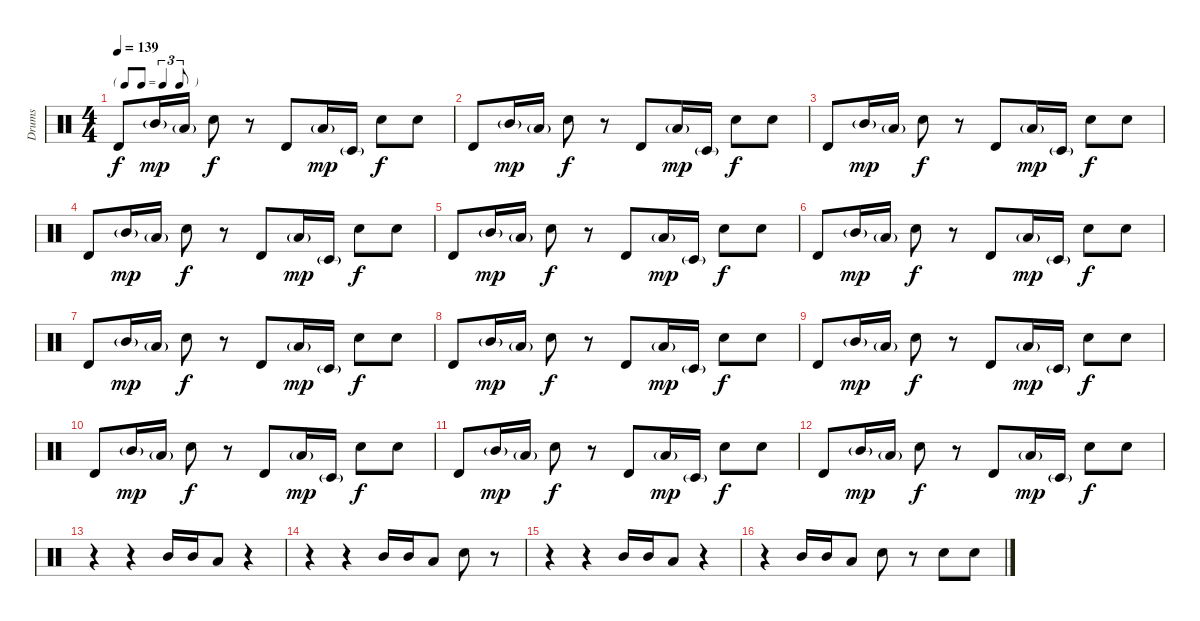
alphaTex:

\track ("Drums" "Drums") {instrument percussion}
\staff {score}
\articulation defaults
\ts (4 4)
\tf triplet8th
\tempo 139
\clef neutral
\ks c "Timbale high (hit)".8{dy f} "Mid Tom (hit)"{g}.16{dy mp} "Low Tom (hit)"{g}.16 "Electric Snare (hit)".8{dy f}
r.8 "Timbale high (hit)".8 "Low Tom (hit)"{g}.16{dy mp} "Timbale low (hit)"{g}.16 "Electric Snare (hit)".8{dy f} "Electric Snare (hit)".8 |
"Timbale high (hit)".8 "Mid Tom (hit)"{g}.16{dy mp} "Low Tom (hit)"{g}.16 "Electric Snare (hit)".8{dy f} r.8 "Timbale high (hit)".8 "Low Tom (hit)"{g}.16{dy mp} "Timbale low (hit)"{g}.16 "Electric Snare (hit)".8{dy f} "Electric Snare (hit)".8 |
"Timbale high (hit)".8 "Mid Tom (hit)"{g}.16{dy mp} "Low Tom (hit)"{g}.16 "Electric Snare (hit)".8{dy f} r.8 "Timbale high (hit)".8 "Low Tom (hit)"{g}.16{dy mp} "Timbale low (hit)"{g}.16 "Electric Snare (hit)".8{dy f} "Electric Snare (hit)".8 |
"Timbale high (hit)".8 "Mid Tom (hit)"{g}.16{dy mp} "Low Tom (hit)"{g}.16 "Electric Snare (hit)".8{dy f} r.8 "Timbale high (hit)".8 "Low Tom (hit)"{g}.16{dy mp} "Timbale low (hit)"{g}.16 "Electric Snare (hit)".8{dy f} "Electric Snare (hit)".8 |
"Timbale high (hit)".8 "Mid Tom (hit)"{g}.16{dy mp} "Low Tom (hit)"{g}.16 "Electric Snare (hit)".8{dy f} r.8 "Timbale high (hit)".8 "Low Tom (hit)"{g}.16{dy mp} "Timbale low (hit)"{g}.16 "Electric Snare (hit)".8{dy f} "Electric Snare (hit)".8 |
"Timbale high (hit)".8 "Mid Tom (hit)"{g}.16{dy mp} "Low Tom (hit)"{g}.16 "Electric Snare (hit)".8{dy f} r.8 "Timbale high (hit)".8 "Low Tom (hit)"{g}.16{dy mp} "Timbale low (hit)"{g}.16 "Electric Snare (hit)".8{dy f} "Electric Snare (hit)".8 |
"Timbale high (hit)".8 "Mid Tom (hit)"{g}.16{dy mp} "Low Tom (hit)"{g}.16 "Electric Snare (hit)".8{dy f} r.8 "Timbale high (hit)".8 "Low Tom (hit)"{g}.16{dy mp} "Timbale low (hit)"{g}.16 "Electric Snare (hit)".8{dy f} "Electric Snare (hit)".8 |
"Timbale high (hit)".8 "Mid Tom (hit)"{g}.16{dy mp} "Low Tom (hit)"{g}.16 "Electric Snare (hit)".8{dy f} r.8 "Timbale high (hit)".8 "Low Tom (hit)"{g}.16{dy mp} "Timbale low (hit)"{g}.16 "Electric Snare (hit)".8{dy f} "Electric Snare (hit)".8 |
"Timbale high (hit)".8 "Mid Tom (hit)"{g}.16{dy mp} "Low Tom (hit)"{g}.16 "Electric Snare (hit)".8{dy f} r.8 "Timbale high (hit)".8 "Low Tom (hit)"{g}.16{dy mp} "Timbale low (hit)"{g}.16 "Electric Snare (hit)".8{dy f} "Electric Snare (hit)".8 |
"Timbale high (hit)".8 "Mid Tom (hit)"{g}.16{dy mp} "Low Tom (hit)"{g}.16 "Electric Snare (hit)".8{dy f} r.8 "Timbale high (hit)".8 "Low Tom (hit)"{g}.16{dy mp} "Timbale low (hit)"{g}.16 "Electric Snare (hit)".8{dy f} "Electric Snare (hit)".8 |
"Timbale high (hit)".8 "Mid Tom (hit)"{g}.16{dy mp} "Low Tom (hit)"{g}.16 "Electric Snare (hit)".8{dy f} r.8 "Timbale high (hit)".8 "Low Tom (hit)"{g}.16{dy mp} "Timbale low (hit)"{g}.16 "Electric Snare (hit)".8{dy f} "Electric Snare (hit)".8 |
"Timbale high (hit)".8 "Mid Tom (hit)"{g}.16{dy mp} "Low Tom (hit)"{g}.16 "Electric Snare (hit)".8{dy f} r.8 "Timbale high (hit)".8 "Low Tom (hit)"{g}.16{dy mp} "Timbale low (hit)"{g}.16 "Electric Snare (hit)".8{dy f} "Electric Snare (hit)".8 |
r.4 r.4 "Mid Tom (hit)".16 "Mid Tom (hit)".16 "Low Tom (hit)".8 r.4 |
r.4 r.4 "Mid Tom (hit)".16 "Mid Tom (hit)".16 "Low Tom (hit)".8 "Electric Snare (hit)".8 r.8 |
r.4 r.4 "Mid Tom (hit)".16 "Mid Tom (hit)".16 "Low Tom (hit)".8 r.4 |
r.4 "Mid Tom (hit)".16 "Mid Tom (hit)".16 "Low Tom (hit)".8 "Electric Snare (hit)".8 r.8 "Electric Snare (hit)".8 "Electric Snare (hit)".8
